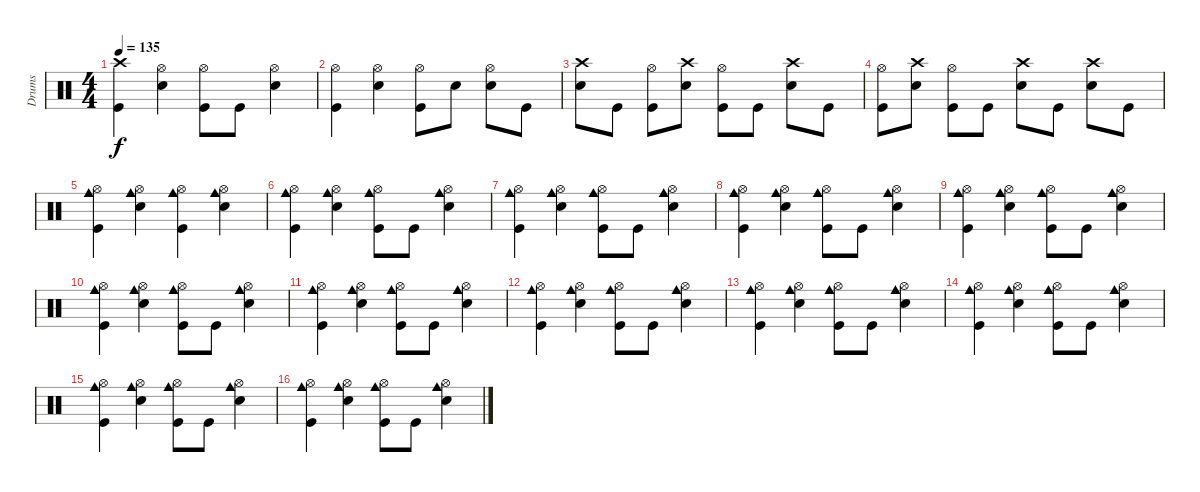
\track ("Drums" "Drums") {instrument percussion}
\staff {score}
\articulation defaults
\ts (4 4)
\tempo 135
\clef neutral
\ks c
("Crash high (hit)" "Kick (hit)").4{dy f} ("Hi-Hat (open)" "Snare (hit) 2").4 ("Hi-Hat (open)" "Kick (hit)").8 "Kick (hit)".8 ("Hi-Hat (open)" "Snare (hit) 2").4 |
("Hi-Hat (open)" "Kick (hit)").4 ("Hi-Hat (open)" "Snare (hit) 2").4 ("Hi-Hat (open)" "Kick (hit)").8 "Snare (hit) 2".8 ("Hi-Hat (open)" "Snare (hit) 2").8 "Kick (hit)".8 |
("Crash high (hit)" "Snare (hit) 2").8 "Kick (hit)".8 ("Hi-Hat (open)" "Kick (hit)").8 ("Crash high (hit)" "Snare (hit) 2").8 ("Hi-Hat (open)" "Kick (hit)").8 "Kick (hit)".8 ("Crash high (hit)" "Snare (hit) 2").8 "Kick (hit)".8 |
("Hi-Hat (open)" "Kick (hit)").8 ("Crash high (hit)" "Snare (hit) 2").8 ("Hi-Hat (open)" "Kick (hit)").8 "Kick (hit)".8 ("Crash high (hit)" "Snare (hit) 2").8 "Kick (hit)".8 ("Crash high (hit)" "Snare (hit) 2").8 "Kick (hit)".8 |
("Hi-Hat (open)" "Cowbell medium (hit)" "Kick (hit)").4 ("Hi-Hat (open)" "Cowbell medium (hit)" "Snare (hit) 2").4 ("Hi-Hat (open)" "Cowbell medium (hit)" "Kick (hit)").4 ("Hi-Hat (open)" "Cowbell medium (hit)" "Snare (hit) 2").4 |
("Hi-Hat (open)" "Cowbell medium (hit)" "Kick (hit)").4 ("Hi-Hat (open)" "Cowbell medium (hit)" "Snare (hit) 2").4 ("Hi-Hat (open)" "Cowbell medium (hit)" "Kick (hit)").8 "Kick (hit)".8 ("Hi-Hat (open)" "Cowbell medium (hit)" "Snare (hit) 2").4 |
("Hi-Hat (open)" "Cowbell medium (hit)" "Kick (hit)").4 ("Hi-Hat (open)" "Cowbell medium (hit)" "Snare (hit) 2").4 ("Hi-Hat (open)" "Cowbell medium (hit)" "Kick (hit)").8 "Kick (hit)".8 ("Hi-Hat (open)" "Cowbell medium (hit)" "Snare (hit) 2").4 |
("Hi-Hat (open)" "Cowbell medium (hit)" "Kick (hit)").4 ("Hi-Hat (open)" "Cowbell medium (hit)" "Snare (hit) 2").4 ("Hi-Hat (open)" "Cowbell medium (hit)" "Kick (hit)").8 "Kick (hit)".8 ("Hi-Hat (open)" "Cowbell medium (hit)" "Snare (hit) 2").4 |
("Hi-Hat (open)" "Cowbell medium (hit)" "Kick (hit)").4 ("Hi-Hat (open)" "Cowbell medium (hit)" "Snare (hit) 2").4 ("Hi-Hat (open)" "Cowbell medium (hit)" "Kick (hit)").8 "Kick (hit)".8 ("Hi-Hat (open)" "Cowbell medium (hit)" "Snare (hit) 2").4 |
("Hi-Hat (open)" "Cowbell medium (hit)" "Kick (hit)").4 ("Hi-Hat (open)" "Cowbell medium (hit)" "Snare (hit) 2").4 ("Hi-Hat (open)" "Cowbell medium (hit)" "Kick (hit)").8 "Kick (hit)".8 ("Hi-Hat (open)" "Cowbell medium (hit)" "Snare (hit) 2").4 |
("Hi-Hat (open)" "Cowbell medium (hit)" "Kick (hit)").4 ("Hi-Hat (open)" "Cowbell medium (hit)" "Snare (hit) 2").4 ("Hi-Hat (open)" "Cowbell medium (hit)" "Kick (hit)").8 "Kick (hit)".8 ("Hi-Hat (open)" "Cowbell medium (hit)" "Snare (hit) 2").4 |
("Hi-Hat (open)" "Cowbell medium (hit)" "Kick (hit)").4 ("Hi-Hat (open)" "Cowbell medium (hit)" "Snare (hit) 2").4 ("Hi-Hat (open)" "Cowbell medium (hit)" "Kick (hit)").8 "Kick (hit)".8 ("Hi-Hat (open)" "Cowbell medium (hit)" "Snare (hit) 2").4 |
("Hi-Hat (open)" "Cowbell medium (hit)" "Kick (hit)").4 ("Hi-Hat (open)" "Cowbell medium (hit)" "Snare (hit) 2").4 ("Hi-Hat (open)" "Cowbell medium (hit)" "Kick (hit)").8 "Kick (hit)".8 ("Hi-Hat (open)" "Cowbell medium (hit)" "Snare (hit) 2").4 |
("Hi-Hat (open)" "Cowbell medium (hit)" "Kick (hit)").4 ("Hi-Hat (open)" "Cowbell medium (hit)" "Snare (hit) 2").4 ("Hi-Hat (open)" "Cowbell medium (hit)" "Kick (hit)").8 "Kick (hit)".8 ("Hi-Hat (open)" "Cowbell medium (hit)" "Snare (hit) 2").4 |
("Hi-Hat (open)" "Cowbell medium (hit)" "Kick (hit)").4 ("Hi-Hat (open)" "Cowbell medium (hit)" "Snare (hit) 2").4 ("Hi-Hat (open)" "Cowbell medium (hit)" "Kick (hit)").8 "Kick (hit)".8 ("Hi-Hat (open)" "Cowbell medium (hit)" "Snare (hit) 2").4 |
("Hi-Hat (open)" "Cowbell medium (hit)" "Kick (hit)").4 ("Hi-Hat (open)" "Cowbell medium (hit)" "Snare (hit) 2").4 ("Hi-Hat (open)" "Cowbell medium (hit)" "Kick (hit)").8 "Kick (hit)".8 ("Hi-Hat (open)" "Cowbell medium (hit)" "Snare (hit) 2").4
